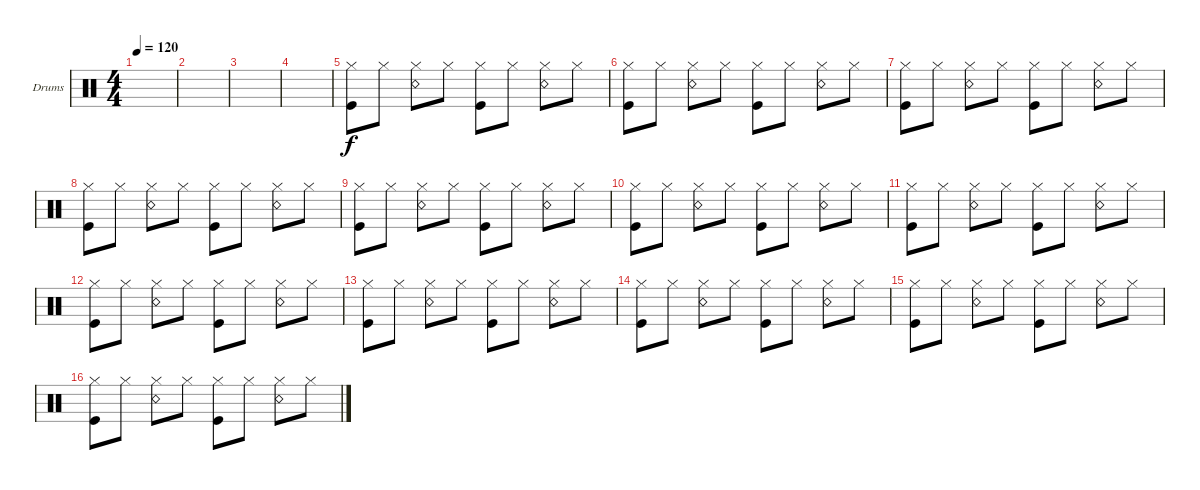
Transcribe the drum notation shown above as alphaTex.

\defaultSystemsLayout 4
\bracketExtendMode groupsimilarinstruments
\firstSystemTrackNameOrientation horizontal
\otherSystemsTrackNameOrientation horizontal
\track ("Drumkit" "Drums") {instrument percussion}
\staff {score}
\articulation defaults
\ts (4 4)
\tempo 120
\clef neutral
\scale
0.472222
\ks c
|
\scale
0.263889 |
\scale
0.263889 |
\scale
0.333333 |
\scale
0.333333 ("Kick (hit)" "Hi-Hat (closed)").8 "Hi-Hat (closed)".8 ("Hi-Hat (closed)" "Snare (rim shot)").8 "Hi-Hat (closed)".8 ("Hi-Hat (closed)" "Kick (hit)").8 "Hi-Hat (closed)".8 ("Hi-Hat (closed)" "Snare (rim shot)").8 "Hi-Hat (closed)".8 |
\scale
0.333333 ("Kick (hit)" "Hi-Hat (closed)").8 "Hi-Hat (closed)".8 ("Hi-Hat (closed)" "Snare (rim shot)").8 "Hi-Hat (closed)".8 ("Hi-Hat (closed)" "Kick (hit)").8 "Hi-Hat (closed)".8 ("Hi-Hat (closed)" "Snare (rim shot)").8 "Hi-Hat (closed)".8 |
\scale
0.333333 ("Kick (hit)" "Hi-Hat (closed)").8 "Hi-Hat (closed)".8 ("Hi-Hat (closed)" "Snare (rim shot)").8 "Hi-Hat (closed)".8 ("Hi-Hat (closed)" "Kick (hit)").8 "Hi-Hat (closed)".8 ("Hi-Hat (closed)" "Snare (rim shot)").8 "Hi-Hat (closed)".8 |
\scale
0.333333 ("Kick (hit)" "Hi-Hat (closed)").8 "Hi-Hat (closed)".8 ("Hi-Hat (closed)" "Snare (rim shot)").8 "Hi-Hat (closed)".8 ("Hi-Hat (closed)" "Kick (hit)").8 "Hi-Hat (closed)".8 ("Hi-Hat (closed)" "Snare (rim shot)").8 "Hi-Hat (closed)".8 |
\scale
0.333333 ("Kick (hit)" "Hi-Hat (closed)").8 "Hi-Hat (closed)".8 ("Hi-Hat (closed)" "Snare (rim shot)").8 "Hi-Hat (closed)".8 ("Hi-Hat (closed)" "Kick (hit)").8 "Hi-Hat (closed)".8 ("Hi-Hat (closed)" "Snare (rim shot)").8 "Hi-Hat (closed)".8 |
\scale
0.333333 ("Kick (hit)" "Hi-Hat (closed)").8 "Hi-Hat (closed)".8 ("Hi-Hat (closed)" "Snare (rim shot)").8 "Hi-Hat (closed)".8 ("Hi-Hat (closed)" "Kick (hit)").8 "Hi-Hat (closed)".8 ("Hi-Hat (closed)" "Snare (rim shot)").8 "Hi-Hat (closed)".8 |
\scale
0.333333 ("Kick (hit)" "Hi-Hat (closed)").8 "Hi-Hat (closed)".8 ("Hi-Hat (closed)" "Snare (rim shot)").8 "Hi-Hat (closed)".8 ("Hi-Hat (closed)" "Kick (hit)").8 "Hi-Hat (closed)".8 ("Hi-Hat (closed)" "Snare (rim shot)").8 "Hi-Hat (closed)".8 |
\scale
0.333333 ("Kick (hit)" "Hi-Hat (closed)").8 "Hi-Hat (closed)".8 ("Hi-Hat (closed)" "Snare (rim shot)").8 "Hi-Hat (closed)".8 ("Hi-Hat (closed)" "Kick (hit)").8 "Hi-Hat (closed)".8 ("Hi-Hat (closed)" "Snare (rim shot)").8 "Hi-Hat (closed)".8 |
\scale
0.333333 ("Kick (hit)" "Hi-Hat (closed)").8 "Hi-Hat (closed)".8 ("Hi-Hat (closed)" "Snare (rim shot)").8 "Hi-Hat (closed)".8 ("Hi-Hat (closed)" "Kick (hit)").8 "Hi-Hat (closed)".8 ("Hi-Hat (closed)" "Snare (rim shot)").8 "Hi-Hat (closed)".8 |
\scale
0.333333 ("Kick (hit)" "Hi-Hat (closed)").8 "Hi-Hat (closed)".8 ("Hi-Hat (closed)" "Snare (rim shot)").8 "Hi-Hat (closed)".8 ("Hi-Hat (closed)" "Kick (hit)").8 "Hi-Hat (closed)".8 ("Hi-Hat (closed)" "Snare (rim shot)").8 "Hi-Hat (closed)".8 |
\scale
0.333333 ("Kick (hit)" "Hi-Hat (closed)").8 "Hi-Hat (closed)".8 ("Hi-Hat (closed)" "Snare (rim shot)").8 "Hi-Hat (closed)".8 ("Hi-Hat (closed)" "Kick (hit)").8 "Hi-Hat (closed)".8 ("Hi-Hat (closed)" "Snare (rim shot)").8 "Hi-Hat (closed)".8 |
\scale
0.333333 ("Kick (hit)" "Hi-Hat (closed)").8 "Hi-Hat (closed)".8 ("Hi-Hat (closed)" "Snare (rim shot)").8 "Hi-Hat (closed)".8 ("Hi-Hat (closed)" "Kick (hit)").8 "Hi-Hat (closed)".8 ("Hi-Hat (closed)" "Snare (rim shot)").8 "Hi-Hat (closed)".8
